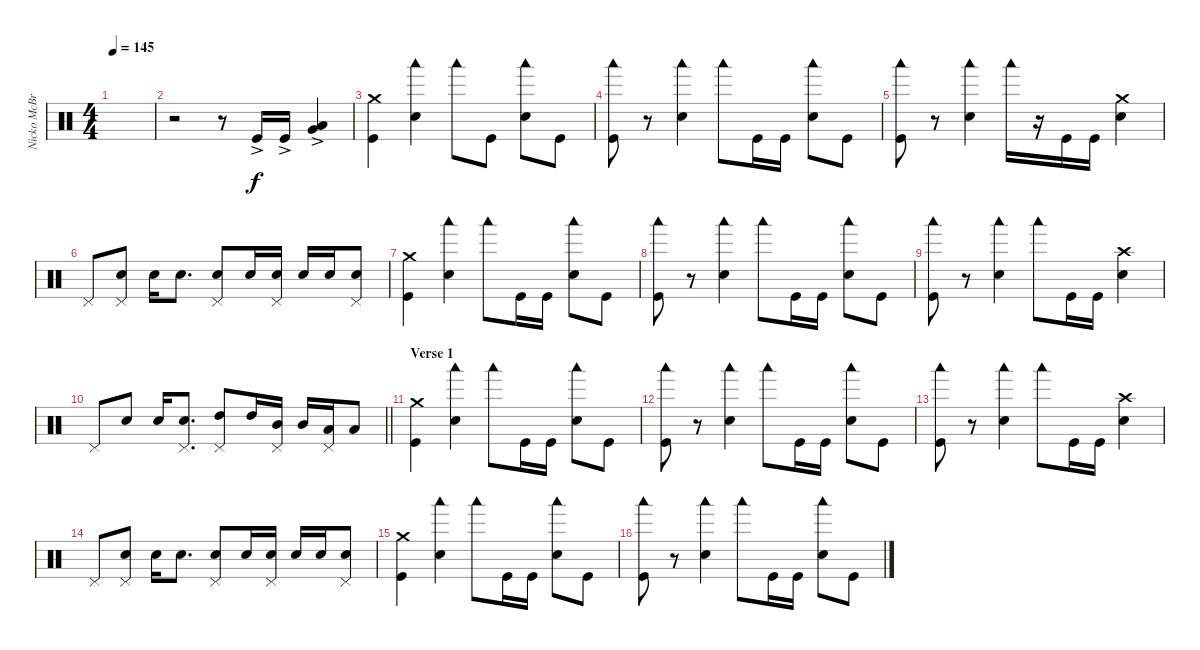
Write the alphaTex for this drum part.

\track ("Nicko McBrain" "Nicko McBr") {instrument percussion}
\staff {score}
\articulation defaults
\ts (4 4)
\tempo 145
\clef neutral
\ks c
|
r.2 r.8 "Kick (hit)"{ac}.16 "Kick (hit)"{ac}.16 ("Very Low Tom (hit)"{ac} "Low Tom (hit)").4 |
("Crash medium (hit)" "Kick (hit)").4{dy f} ("Woodblock low (hit)" "Electric Snare (hit)").4 "Woodblock low (hit)".8 "Kick (hit)".8 ("Woodblock low (hit)" "Electric Snare (hit)").8 "Kick (hit)".8 |
("Woodblock low (hit)" "Kick (hit)").8 r.8 ("Woodblock low (hit)" "Electric Snare (hit)").4 "Woodblock low (hit)".8 "Kick (hit)".16 "Kick (hit)".16 ("Woodblock low (hit)" "Electric Snare (hit)").8 "Kick (hit)".8 |
("Woodblock low (hit)" "Kick (hit)").8 r.8 ("Woodblock low (hit)" "Electric Snare (hit)").4 "Woodblock low (hit)".16 r.16 "Kick (hit)".16 "Kick (hit)".16 ("Crash medium (hit)" "Electric Snare (hit)").4 |
"Pedal Hi-Hat (hit)".8 ("Pedal Hi-Hat (hit)" "Electric Snare (hit)").8 "Electric Snare (hit)".16 "Electric Snare (hit)".8{d} ("Pedal Hi-Hat (hit)" "Electric Snare (hit)").8 "Electric Snare (hit)".16 ("Pedal Hi-Hat (hit)" "Electric Snare (hit)").16 "Electric Snare (hit)".16 "Electric Snare (hit)".16 ("Pedal Hi-Hat (hit)" "Electric Snare (hit)").8 |
("Crash medium (hit)" "Kick (hit)").4 ("Woodblock low (hit)" "Electric Snare (hit)").4 "Woodblock low (hit)".8 "Kick (hit)".16 "Kick (hit)".16 ("Woodblock low (hit)" "Electric Snare (hit)").8 "Kick (hit)".8 |
("Woodblock low (hit)" "Kick (hit)").8 r.8 ("Woodblock low (hit)" "Electric Snare (hit)").4 "Woodblock low (hit)".8 "Kick (hit)".16 "Kick (hit)".16 ("Woodblock low (hit)" "Electric Snare (hit)").8 "Kick (hit)".8 |
("Woodblock low (hit)" "Kick (hit)").8 r.8 ("Woodblock low (hit)" "Electric Snare (hit)").4 "Woodblock low (hit)".8 "Kick (hit)".16 "Kick (hit)".16 ("Crash high (hit)" "Electric Snare (hit)").4 |
\barLineRight lightlight "Pedal Hi-Hat (hit)".8 "Electric Snare (hit)".8 "Electric Snare (hit)".16
("Pedal Hi-Hat (hit)" "Electric Snare (hit)").8{d} ("Pedal Hi-Hat (hit)" "High Tom (hit)").8 "High Tom (hit)".16 ("Pedal Hi-Hat (hit)" "Mid Tom (hit)").16 "Mid Tom (hit)".16 ("Pedal Hi-Hat (hit)" "Low Tom (hit)").16 "Low Tom (hit)".8 |
\section ("" "Verse 1")
("Crash medium (hit)" "Kick (hit)").4 ("Woodblock low (hit)" "Electric Snare (hit)").4 "Woodblock low (hit)".8 "Kick (hit)".16 "Kick (hit)".16 ("Woodblock low (hit)" "Electric Snare (hit)").8 "Kick (hit)".8 |
("Woodblock low (hit)" "Kick (hit)").8 r.8 ("Woodblock low (hit)" "Electric Snare (hit)").4 "Woodblock low (hit)".8 "Kick (hit)".16 "Kick (hit)".16 ("Woodblock low (hit)" "Electric Snare (hit)").8 "Kick (hit)".8 |
("Woodblock low (hit)" "Kick (hit)").8 r.8 ("Woodblock low (hit)" "Electric Snare (hit)").4 "Woodblock low (hit)".8 "Kick (hit)".16 "Kick (hit)".16 ("Crash high (hit)" "Electric Snare (hit)").4 |
"Pedal Hi-Hat (hit)".8 ("Pedal Hi-Hat (hit)" "Electric Snare (hit)").8 "Electric Snare (hit)".16 "Electric Snare (hit)".8{d} ("Pedal Hi-Hat (hit)" "Electric Snare (hit)").8 "Electric Snare (hit)".16 ("Pedal Hi-Hat (hit)" "Electric Snare (hit)").16 "Electric Snare (hit)".16 "Electric Snare (hit)".16 ("Pedal Hi-Hat (hit)" "Electric Snare (hit)").8 |
("Crash medium (hit)" "Kick (hit)").4 ("Woodblock low (hit)" "Electric Snare (hit)").4 "Woodblock low (hit)".8 "Kick (hit)".16 "Kick (hit)".16 ("Woodblock low (hit)" "Electric Snare (hit)").8 "Kick (hit)".8 |
("Woodblock low (hit)" "Kick (hit)").8 r.8 ("Woodblock low (hit)" "Electric Snare (hit)").4 "Woodblock low (hit)".8 "Kick (hit)".16 "Kick (hit)".16 ("Woodblock low (hit)" "Electric Snare (hit)").8 "Kick (hit)".8
